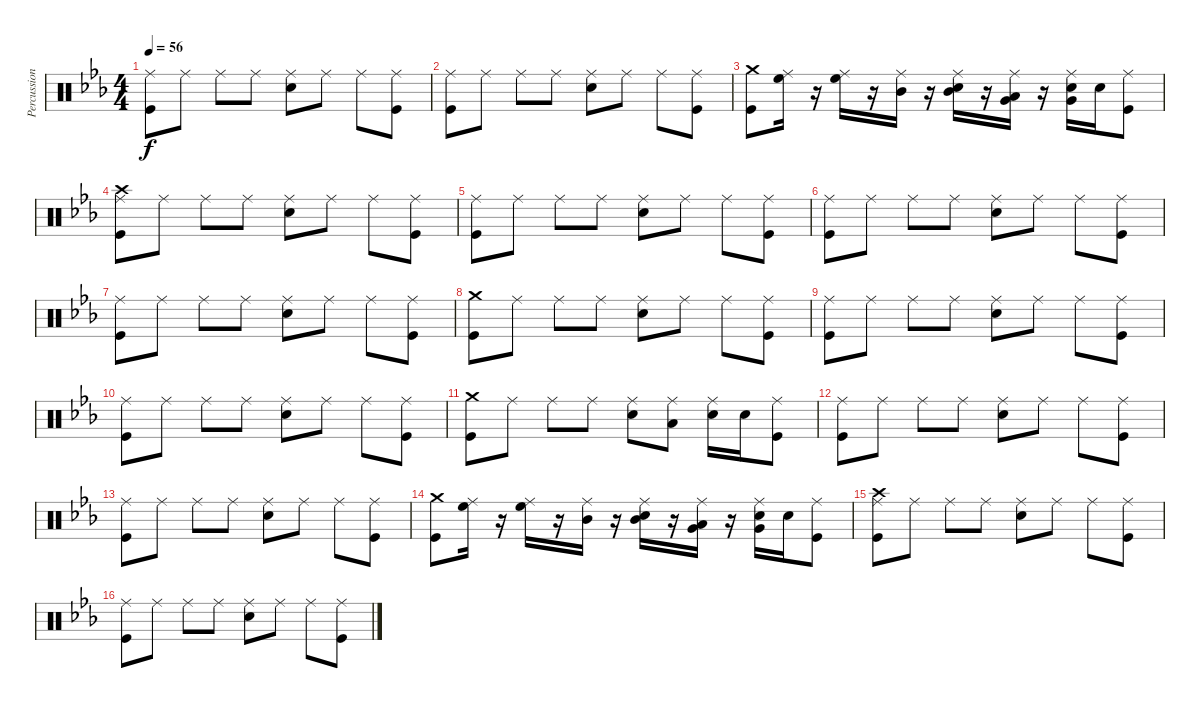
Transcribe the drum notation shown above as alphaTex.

\track ("Percussion" "Percussion") {instrument percussion}
\staff {score}
\articulation defaults
\ts (4 4)
\tempo 56
\clef neutral
\ks cminor
("Ride (middle)" "Kick (hit)").8{dy f} "Ride (middle)".8 "Ride (middle)".8 "Ride (middle)".8 ("Snare (hit) 2" "Ride (middle)").8 "Ride (middle)".8 "Ride (middle)".8 ("Kick (hit)" "Ride (middle)").8 |
("Ride (middle)" "Kick (hit)").8 "Ride (middle)".8 "Ride (middle)".8 "Ride (middle)".8 ("Snare (hit) 2" "Ride (middle)").8 "Ride (middle)".8 "Ride (middle)".8 ("Kick (hit)" "Ride (middle)").8 |
("Crash medium (hit)" "Kick (hit)").8 ("High Floor Tom (hit)" "Ride (middle)").16 r.16 ("High Floor Tom (hit)" "Ride (middle)").16 r.16 ("Mid Tom (hit)" "Ride (middle)").16 r.16 ("Mid Tom (hit)" "Snare (hit) 2" "Ride (middle)").16 r.16 ("Very Low Tom (hit)" "Low Floor Tom (hit)" "Ride (middle)").16 r.16 ("Very Low Tom (hit)" "Snare (hit) 2" "Ride (middle)").16 "Snare (hit) 2".16 ("Kick (hit)" "Ride (middle)").8 |
("Crash high (hit)" "Kick (hit)" "Ride (middle)").8 "Ride (middle)".8 "Ride (middle)".8 "Ride (middle)".8 ("Snare (hit) 2" "Ride (middle)").8 "Ride (middle)".8 "Ride (middle)".8 ("Kick (hit)" "Ride (middle)").8 |
("Ride (middle)" "Kick (hit)").8 "Ride (middle)".8 "Ride (middle)".8 "Ride (middle)".8 ("Snare (hit) 2" "Ride (middle)").8 "Ride (middle)".8 "Ride (middle)".8 ("Kick (hit)" "Ride (middle)").8 |
("Ride (middle)" "Kick (hit)").8 "Ride (middle)".8 "Ride (middle)".8 "Ride (middle)".8 ("Snare (hit) 2" "Ride (middle)").8 "Ride (middle)".8 "Ride (middle)".8 ("Kick (hit)" "Ride (middle)").8 |
("Ride (middle)" "Kick (hit)").8 "Ride (middle)".8 "Ride (middle)".8 "Ride (middle)".8 ("Snare (hit) 2" "Ride (middle)").8 "Ride (middle)".8 "Ride (middle)".8 ("Kick (hit)" "Ride (middle)").8 |
("Crash medium (hit)" "Kick (hit)").8 "Ride (middle)".8 "Ride (middle)".8 "Ride (middle)".8 ("Snare (hit) 2" "Ride (middle)").8 "Ride (middle)".8 "Ride (middle)".8 ("Kick (hit)" "Ride (middle)").8 |
("Ride (middle)" "Kick (hit)").8 "Ride (middle)".8 "Ride (middle)".8 "Ride (middle)".8 ("Snare (hit) 2" "Ride (middle)").8 "Ride (middle)".8 "Ride (middle)".8 ("Kick (hit)" "Ride (middle)").8 |
("Ride (middle)" "Kick (hit)").8 "Ride (middle)".8 "Ride (middle)".8 "Ride (middle)".8 ("Snare (hit) 2" "Ride (middle)").8 "Ride (middle)".8 "Ride (middle)".8 ("Kick (hit)" "Ride (middle)").8 |
("Crash medium (hit)" "Kick (hit)").8 "Ride (middle)".8 "Ride (middle)".8 "Ride (middle)".8 ("Snare (hit) 2" "Ride (middle)").8 ("Low Floor Tom (hit)" "Ride (middle)").8 ("Snare (hit) 2" "Ride (middle)").16 "Snare (hit) 2".16 ("Kick (hit)" "Ride (middle)").8 |
("Ride (middle)" "Kick (hit)").8 "Ride (middle)".8 "Ride (middle)".8 "Ride (middle)".8 ("Snare (hit) 2" "Ride (middle)").8 "Ride (middle)".8 "Ride (middle)".8 ("Kick (hit)" "Ride (middle)").8 |
("Ride (middle)" "Kick (hit)").8 "Ride (middle)".8 "Ride (middle)".8 "Ride (middle)".8 ("Snare (hit) 2" "Ride (middle)").8 "Ride (middle)".8 "Ride (middle)".8 ("Kick (hit)" "Ride (middle)").8 |
("Crash medium (hit)" "Kick (hit)").8 ("High Floor Tom (hit)" "Ride (middle)").16 r.16 ("High Floor Tom (hit)" "Ride (middle)").16 r.16 ("Mid Tom (hit)" "Ride (middle)").16 r.16 ("Mid Tom (hit)" "Snare (hit) 2" "Ride (middle)").16 r.16 ("Very Low Tom (hit)" "Low Floor Tom (hit)" "Ride (middle)").16 r.16 ("Very Low Tom (hit)" "Snare (hit) 2" "Ride (middle)").16 "Snare (hit) 2".16 ("Kick (hit)" "Ride (middle)").8 |
("Crash high (hit)" "Kick (hit)" "Ride (middle)").8 "Ride (middle)".8 "Ride (middle)".8 "Ride (middle)".8 ("Snare (hit) 2" "Ride (middle)").8 "Ride (middle)".8 "Ride (middle)".8 ("Kick (hit)" "Ride (middle)").8 |
("Ride (middle)" "Kick (hit)").8 "Ride (middle)".8 "Ride (middle)".8 "Ride (middle)".8 ("Snare (hit) 2" "Ride (middle)").8 "Ride (middle)".8 "Ride (middle)".8 ("Kick (hit)" "Ride (middle)").8
